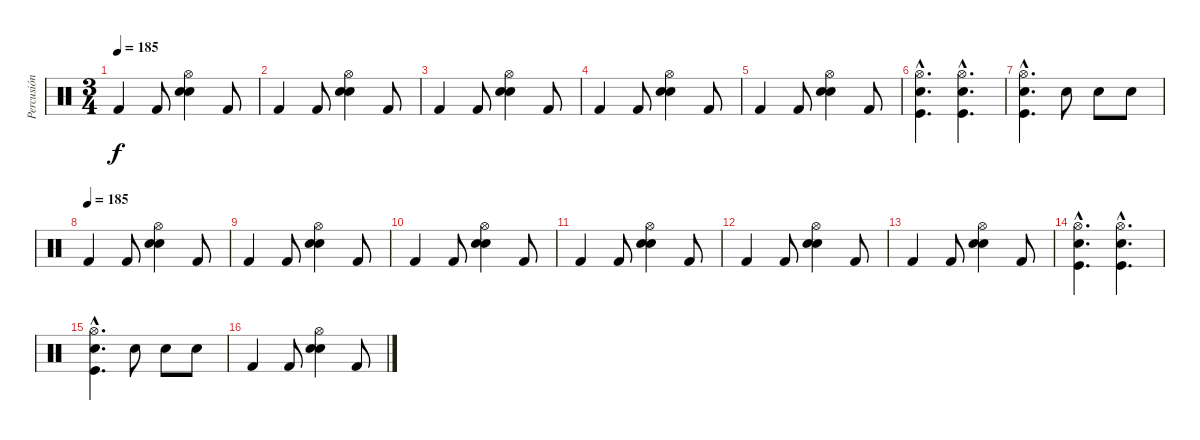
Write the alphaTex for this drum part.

\track ("Percusión" "Percusión") {instrument percussion}
\staff {score}
\articulation defaults
\ts (3 4)
\tempo 185
\clef neutral
\ks c "Kick (hit) 2".4{dy f} "Kick (hit) 2".8
("Hi-Hat (open)" "Electric Snare (hit)" "Snare (hit) 2").4 "Kick (hit) 2".8 |
"Kick (hit) 2".4 "Kick (hit) 2".8 ("Hi-Hat (open)" "Electric Snare (hit)" "Snare (hit) 2").4 "Kick (hit) 2".8 |
"Kick (hit) 2".4 "Kick (hit) 2".8 ("Hi-Hat (open)" "Electric Snare (hit)" "Snare (hit) 2").4 "Kick (hit) 2".8 |
"Kick (hit) 2".4 "Kick (hit) 2".8 ("Hi-Hat (open)" "Electric Snare (hit)" "Snare (hit) 2").4 "Kick (hit) 2".8 |
"Kick (hit) 2".4 "Kick (hit) 2".8 ("Hi-Hat (open)" "Electric Snare (hit)" "Snare (hit) 2").4 "Kick (hit) 2".8 |
("Hi-Hat (open)"{hac} "Electric Snare (hit)"{hac} "Kick (hit)"{hac}).4{d} ("Hi-Hat (open)"{hac} "Electric Snare (hit)"{hac} "Kick (hit)"{hac}).4{d} |
("Hi-Hat (open)"{hac} "Electric Snare (hit)"{hac} "Kick (hit)"{hac}).4{d} "Electric Snare (hit)".8 "Electric Snare (hit)".8 "Electric Snare (hit)".8 |
\tempo (185)
"Kick (hit) 2".4 "Kick (hit) 2".8 ("Hi-Hat (open)" "Electric Snare (hit)" "Snare (hit) 2").4 "Kick (hit) 2".8 |
"Kick (hit) 2".4 "Kick (hit) 2".8 ("Hi-Hat (open)" "Electric Snare (hit)" "Snare (hit) 2").4 "Kick (hit) 2".8 |
"Kick (hit) 2".4 "Kick (hit) 2".8 ("Hi-Hat (open)" "Electric Snare (hit)" "Snare (hit) 2").4 "Kick (hit) 2".8 |
"Kick (hit) 2".4 "Kick (hit) 2".8 ("Hi-Hat (open)" "Electric Snare (hit)" "Snare (hit) 2").4 "Kick (hit) 2".8 |
"Kick (hit) 2".4 "Kick (hit) 2".8 ("Hi-Hat (open)" "Electric Snare (hit)" "Snare (hit) 2").4 "Kick (hit) 2".8 |
"Kick (hit) 2".4 "Kick (hit) 2".8 ("Hi-Hat (open)" "Electric Snare (hit)" "Snare (hit) 2").4 "Kick (hit) 2".8 |
("Hi-Hat (open)"{hac} "Electric Snare (hit)"{hac} "Kick (hit)"{hac}).4{d} ("Hi-Hat (open)"{hac} "Electric Snare (hit)"{hac} "Kick (hit)"{hac}).4{d} |
("Hi-Hat (open)"{hac} "Electric Snare (hit)"{hac} "Kick (hit)"{hac}).4{d} "Electric Snare (hit)".8 "Electric Snare (hit)".8 "Electric Snare (hit)".8 |
"Kick (hit) 2".4 "Kick (hit) 2".8 ("Hi-Hat (open)" "Electric Snare (hit)" "Snare (hit) 2").4 "Kick (hit) 2".8
